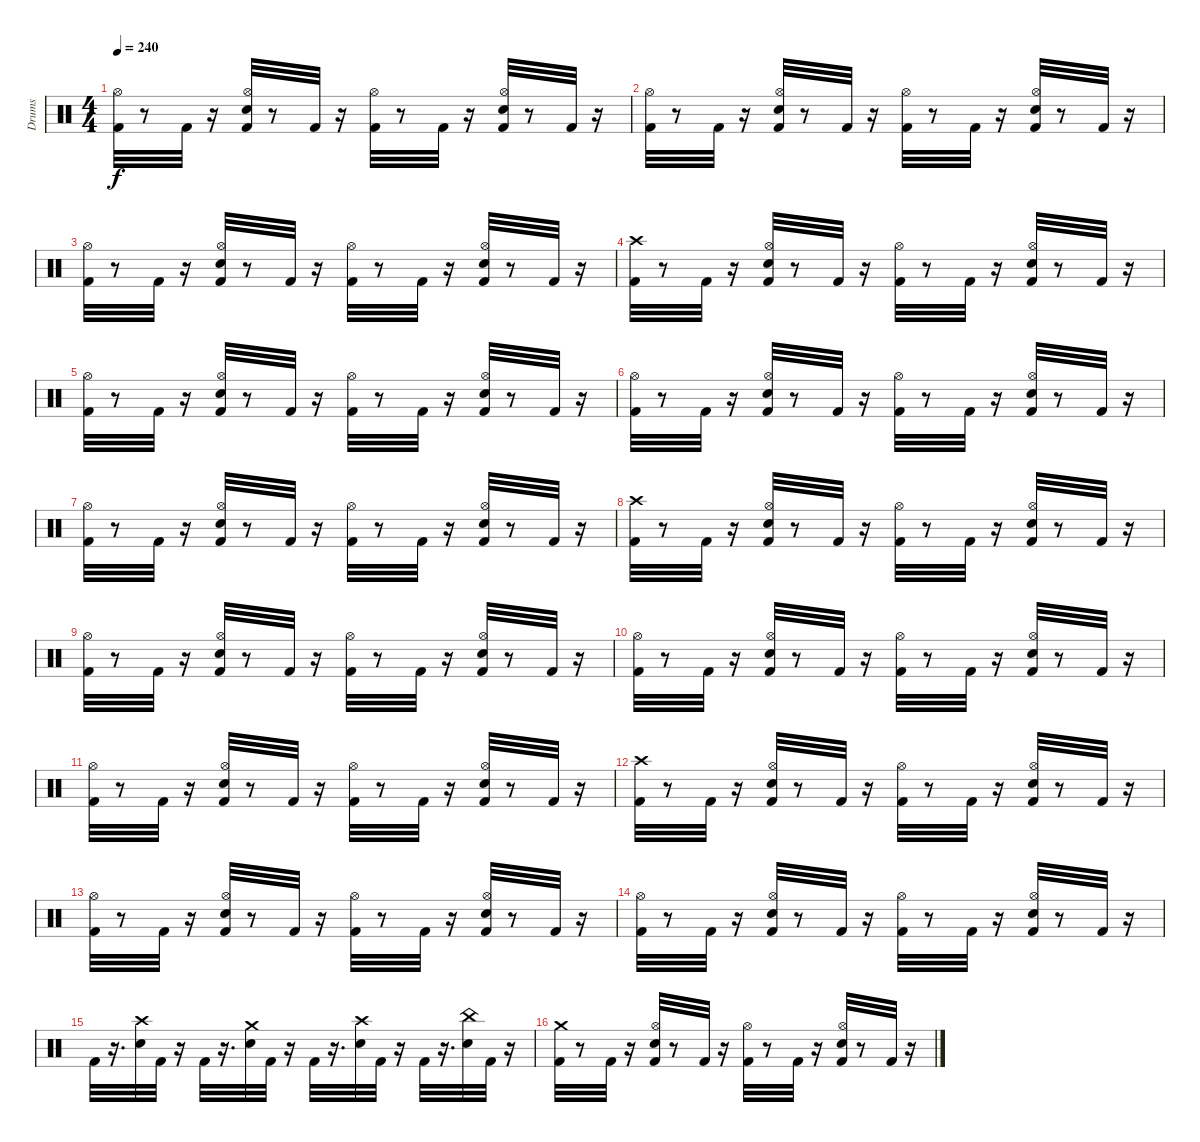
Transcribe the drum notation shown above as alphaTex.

\track ("Drums" "Drums") {instrument percussion}
\staff {score}
\articulation defaults
\ts (4 4)
\tempo 240
\clef neutral
\ks c
("Kick (hit) 2" "Hi-Hat (open)").32{dy f} r.8 "Kick (hit) 2".32 r.16 ("Kick (hit) 2" "Electric Snare (hit)" "Hi-Hat (open)").32 r.8 "Kick (hit) 2".32 r.16 ("Kick (hit) 2" "Hi-Hat (open)").32 r.8 "Kick (hit) 2".32 r.16 ("Hi-Hat (open)" "Electric Snare (hit)" "Kick (hit) 2").32 r.8 "Kick (hit) 2".32 r.16 |
("Hi-Hat (open)" "Kick (hit) 2").32 r.8 "Kick (hit) 2".32 r.16 ("Kick (hit) 2" "Hi-Hat (open)" "Electric Snare (hit)").32 r.8 "Kick (hit) 2".32 r.16 ("Hi-Hat (open)" "Kick (hit) 2").32 r.8 "Kick (hit) 2".32 r.16 ("Electric Snare (hit)" "Kick (hit) 2" "Hi-Hat (open)").32 r.8 "Kick (hit) 2".32 r.16 |
("Hi-Hat (open)" "Kick (hit) 2").32 r.8 "Kick (hit) 2".32 r.16 ("Hi-Hat (open)" "Electric Snare (hit)" "Kick (hit) 2").32 r.8 "Kick (hit) 2".32 r.16 ("Hi-Hat (open)" "Kick (hit) 2").32 r.8 "Kick (hit) 2".32 r.16 ("Hi-Hat (open)" "Kick (hit) 2" "Electric Snare (hit)").32 r.8 "Kick (hit) 2".32 r.16 |
("Crash high (hit)" "Kick (hit) 2").32 r.8 "Kick (hit) 2".32 r.16 ("Electric Snare (hit)" "Kick (hit) 2" "Hi-Hat (open)").32 r.8 "Kick (hit) 2".32 r.16 ("Hi-Hat (open)" "Kick (hit) 2").32 r.8 "Kick (hit) 2".32 r.16 ("Kick (hit) 2" "Electric Snare (hit)" "Hi-Hat (open)").32 r.8 "Kick (hit) 2".32 r.16 |
("Hi-Hat (open)" "Kick (hit) 2").32 r.8 "Kick (hit) 2".32 r.16 ("Kick (hit) 2" "Hi-Hat (open)" "Electric Snare (hit)").32 r.8 "Kick (hit) 2".32 r.16 ("Hi-Hat (open)" "Kick (hit) 2").32 r.8 "Kick (hit) 2".32 r.16 ("Hi-Hat (open)" "Electric Snare (hit)" "Kick (hit) 2").32 r.8 "Kick (hit) 2".32 r.16 |
("Kick (hit) 2" "Hi-Hat (open)").32 r.8 "Kick (hit) 2".32 r.16 ("Electric Snare (hit)" "Hi-Hat (open)" "Kick (hit) 2").32 r.8 "Kick (hit) 2".32 r.16 ("Hi-Hat (open)" "Kick (hit) 2").32 r.8 "Kick (hit) 2".32 r.16 ("Electric Snare (hit)" "Hi-Hat (open)" "Kick (hit) 2").32 r.8 "Kick (hit) 2".32 r.16 |
("Hi-Hat (open)" "Kick (hit) 2").32 r.8 "Kick (hit) 2".32 r.16 ("Electric Snare (hit)" "Kick (hit) 2" "Hi-Hat (open)").32 r.8 "Kick (hit) 2".32 r.16 ("Kick (hit) 2" "Hi-Hat (open)").32 r.8 "Kick (hit) 2".32 r.16 ("Hi-Hat (open)" "Electric Snare (hit)" "Kick (hit) 2").32 r.8 "Kick (hit) 2".32 r.16 |
("Crash high (hit)" "Kick (hit) 2").32 r.8 "Kick (hit) 2".32 r.16 ("Electric Snare (hit)" "Hi-Hat (open)" "Kick (hit) 2").32 r.8 "Kick (hit) 2".32 r.16 ("Hi-Hat (open)" "Kick (hit) 2").32 r.8 "Kick (hit) 2".32 r.16 ("Kick (hit) 2" "Electric Snare (hit)" "Hi-Hat (open)").32 r.8 "Kick (hit) 2".32 r.16 |
("Hi-Hat (open)" "Kick (hit) 2").32 r.8 "Kick (hit) 2".32 r.16 ("Hi-Hat (open)" "Electric Snare (hit)" "Kick (hit) 2").32 r.8 "Kick (hit) 2".32 r.16 ("Hi-Hat (open)" "Kick (hit) 2").32 r.8 "Kick (hit) 2".32 r.16 ("Hi-Hat (open)" "Electric Snare (hit)" "Kick (hit) 2").32 r.8 "Kick (hit) 2".32 r.16 |
("Hi-Hat (open)" "Kick (hit) 2").32 r.8 "Kick (hit) 2".32 r.16 ("Electric Snare (hit)" "Hi-Hat (open)" "Kick (hit) 2").32 r.8 "Kick (hit) 2".32 r.16 ("Kick (hit) 2" "Hi-Hat (open)").32 r.8 "Kick (hit) 2".32 r.16 ("Hi-Hat (open)" "Electric Snare (hit)" "Kick (hit) 2").32 r.8 "Kick (hit) 2".32 r.16 |
("Hi-Hat (open)" "Kick (hit) 2").32 r.8 "Kick (hit) 2".32 r.16 ("Kick (hit) 2" "Hi-Hat (open)" "Electric Snare (hit)").32 r.8 "Kick (hit) 2".32 r.16 ("Hi-Hat (open)" "Kick (hit) 2").32 r.8 "Kick (hit) 2".32 r.16 ("Hi-Hat (open)" "Kick (hit) 2" "Electric Snare (hit)").32 r.8 "Kick (hit) 2".32 r.16 |
("Crash high (hit)" "Kick (hit) 2").32 r.8 "Kick (hit) 2".32 r.16 ("Hi-Hat (open)" "Electric Snare (hit)" "Kick (hit) 2").32 r.8 "Kick (hit) 2".32 r.16 ("Hi-Hat (open)" "Kick (hit) 2").32 r.8 "Kick (hit) 2".32 r.16 ("Kick (hit) 2" "Hi-Hat (open)" "Electric Snare (hit)").32 r.8 "Kick (hit) 2".32 r.16 |
("Hi-Hat (open)" "Kick (hit) 2").32 r.8 "Kick (hit) 2".32 r.16 ("Kick (hit) 2" "Electric Snare (hit)" "Hi-Hat (open)").32 r.8 "Kick (hit) 2".32 r.16 ("Hi-Hat (open)" "Kick (hit) 2").32 r.8 "Kick (hit) 2".32 r.16 ("Kick (hit) 2" "Hi-Hat (open)" "Electric Snare (hit)").32 r.8 "Kick (hit) 2".32 r.16 |
("Hi-Hat (open)" "Kick (hit) 2").32 r.8 "Kick (hit) 2".32 r.16 ("Kick (hit) 2" "Electric Snare (hit)" "Hi-Hat (open)").32 r.8 "Kick (hit) 2".32 r.16 ("Hi-Hat (open)" "Kick (hit) 2").32 r.8 "Kick (hit) 2".32 r.16 ("Kick (hit) 2" "Electric Snare (hit)" "Hi-Hat (open)").32 r.8 "Kick (hit) 2".32 r.16 |
"Kick (hit) 2".32 r.16{d} ("Crash high (hit)" "Electric Snare (hit)").32 "Kick (hit) 2".32 r.16 "Kick (hit) 2".32 r.16{d} ("Electric Snare (hit)" "Crash medium (hit)").32 "Kick (hit) 2".32 r.16 "Kick (hit) 2".32 r.16{d} ("Electric Snare (hit)" "Crash high (hit)").32 "Kick (hit) 2".32 r.16 "Kick (hit) 2".32 r.16{d} ("China (hit)" "Electric Snare (hit)").32 "Kick (hit) 2".32 r.16 |
("Crash medium (hit)" "Kick (hit) 2").32 r.8 "Kick (hit) 2".32 r.16 ("Electric Snare (hit)" "Kick (hit) 2" "Hi-Hat (open)").32 r.8 "Kick (hit) 2".32 r.16 ("Hi-Hat (open)" "Kick (hit) 2").32 r.8 "Kick (hit) 2".32 r.16 ("Kick (hit) 2" "Hi-Hat (open)" "Electric Snare (hit)").32 r.8 "Kick (hit) 2".32 r.16
